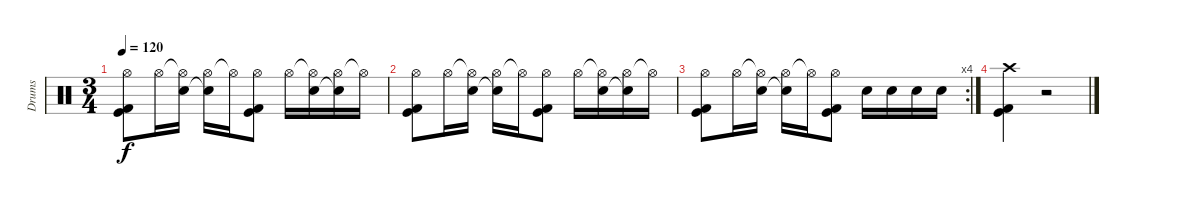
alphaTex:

\track ("Drums" "Drums") {instrument percussion}
\staff {score}
\articulation defaults
\ts (3 4)
\tempo 120
\clef neutral
\ks c
("Hi-Hat (open)" "Kick (hit) 2" "Kick (hit)").8{dy f} "Hi-Hat (open)".16 ("Hi-Hat (open)"{t} "Snare (hit) 2").16 ("Hi-Hat (open)" "Snare (hit) 2"{t}).16 "Hi-Hat (open)"{t}.16 ("Hi-Hat (open)" "Kick (hit) 2" "Kick (hit)").8 "Hi-Hat (open)".16 ("Hi-Hat (open)"{t} "Snare (hit) 2").16 ("Hi-Hat (open)" "Snare (hit) 2"{t}).16 "Hi-Hat (open)"{t}.16 |
("Hi-Hat (open)" "Kick (hit) 2" "Kick (hit)").8 "Hi-Hat (open)".16 ("Hi-Hat (open)"{t} "Snare (hit) 2").16 ("Hi-Hat (open)" "Snare (hit) 2"{t}).16 "Hi-Hat (open)"{t}.16 ("Hi-Hat (open)" "Kick (hit) 2" "Kick (hit)").8 "Hi-Hat (open)".16 ("Hi-Hat (open)"{t} "Snare (hit) 2").16 ("Hi-Hat (open)" "Snare (hit) 2"{t}).16 "Hi-Hat (open)"{t}.16 |
\rc 4
("Hi-Hat (open)" "Kick (hit) 2" "Kick (hit)").8 "Hi-Hat (open)".16 ("Hi-Hat (open)"{t} "Snare (hit) 2").16 ("Hi-Hat (open)" "Snare (hit) 2"{t}).16 "Hi-Hat (open)"{t}.16 ("Hi-Hat (open)" "Kick (hit) 2" "Kick (hit)").8 "Snare (hit) 2".16 "Snare (hit) 2".16 "Snare (hit) 2".16 "Snare (hit) 2".16 |
("Crash high (hit)" "Kick (hit) 2" "Kick (hit)").4 r.2
